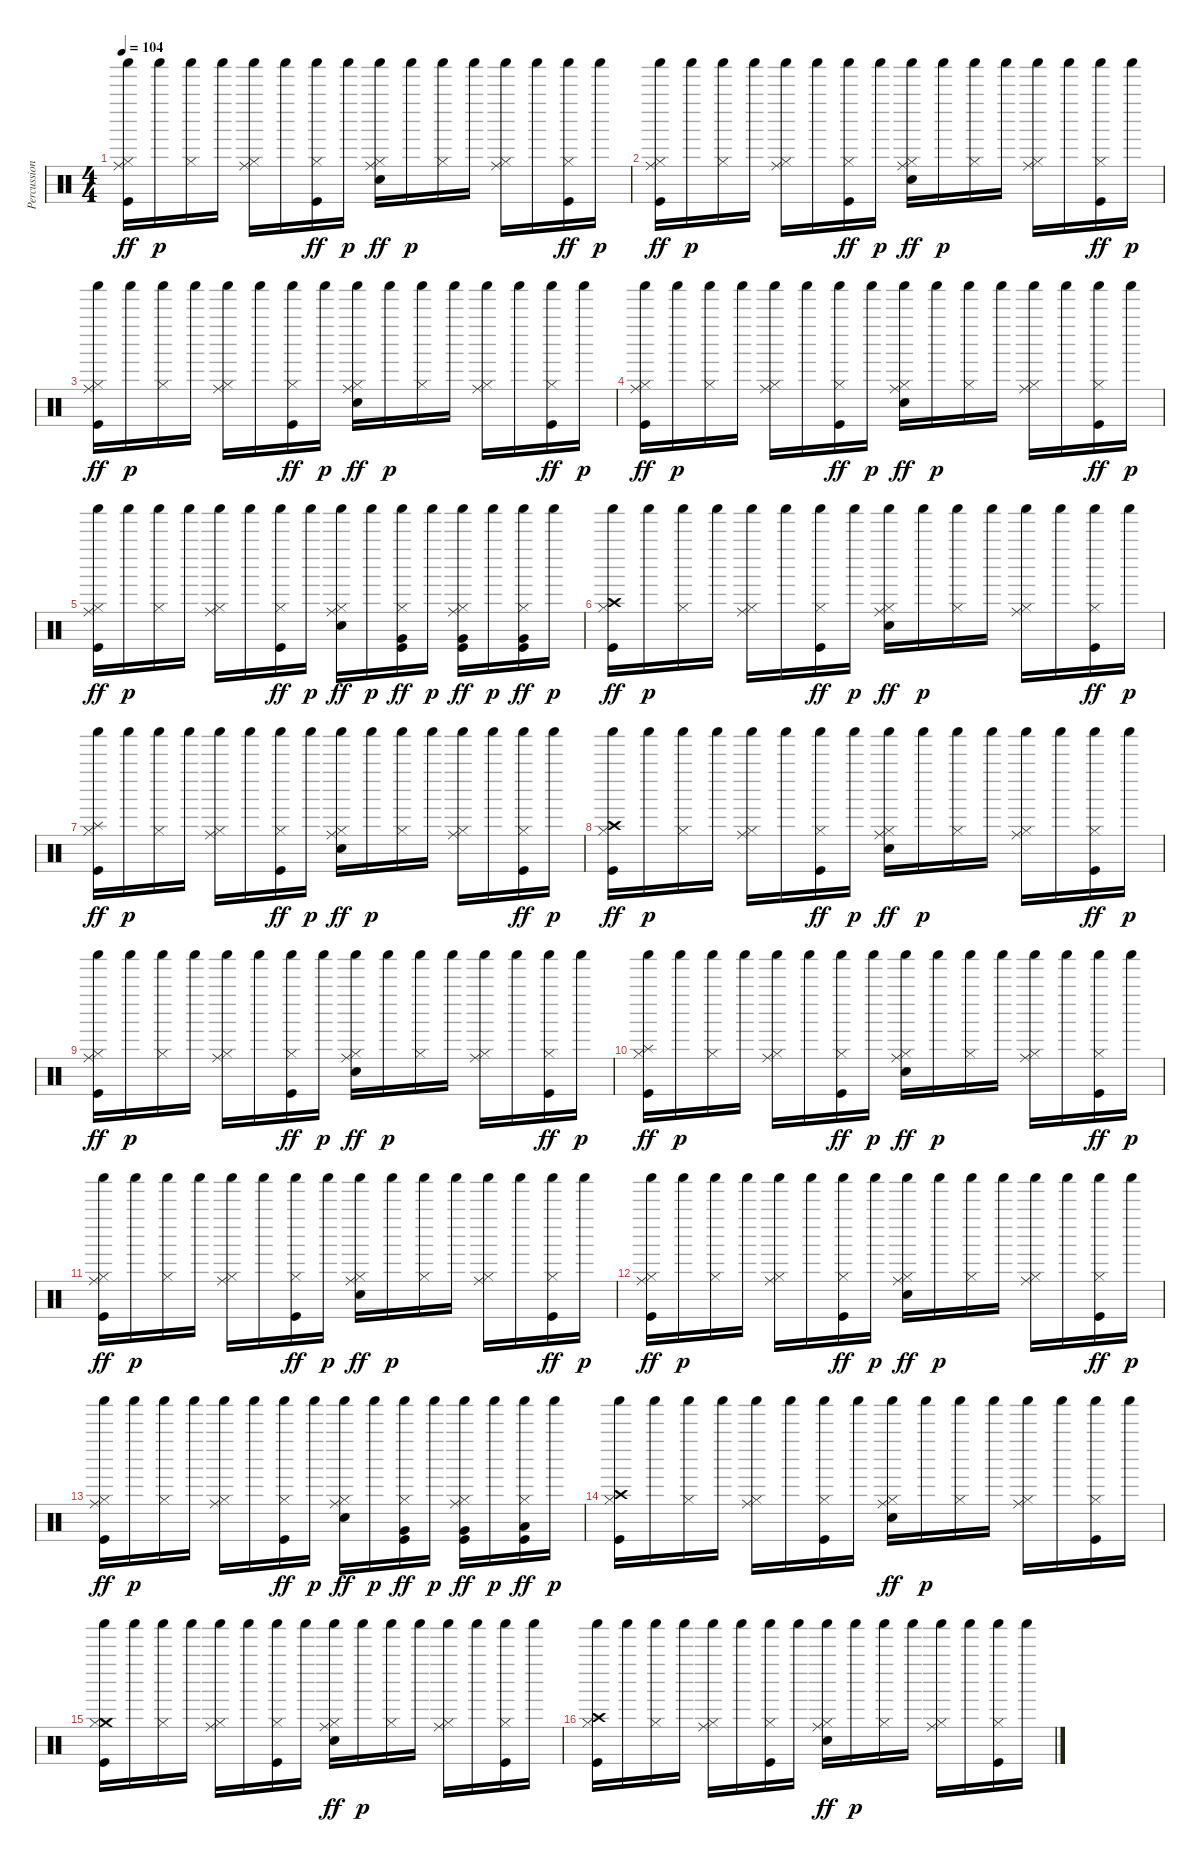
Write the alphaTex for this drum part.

\track ("Percussioni" "Percussion") {instrument percussion}
\staff {score}
\articulation defaults
\ts (4 4)
\tempo 104
\clef neutral
\ks c
("Ride (middle)" "Shaker (hit)" "Hi-Hat (closed)" "Kick (hit)").16{dy ff} "Shaker (hit)".16{dy p} ("Shaker (hit)" "Hi-Hat (closed)").16 "Shaker (hit)".16 ("Ride (middle)" "Shaker (hit)" "Hi-Hat (closed)").16 "Shaker (hit)".16 ("Shaker (hit)" "Hi-Hat (closed)" "Kick (hit)").16{dy ff} "Shaker (hit)".16{dy p} ("Ride (middle)" "Shaker (hit)" "Hi-Hat (closed)" "Snare (hit) 2").16{dy ff} "Shaker (hit)".16{dy p} ("Shaker (hit)" "Hi-Hat (closed)").16 "Shaker (hit)".16 ("Ride (middle)" "Shaker (hit)" "Hi-Hat (closed)").16 "Shaker (hit)".16 ("Shaker (hit)" "Hi-Hat (closed)" "Kick (hit)").16{dy ff} "Shaker (hit)".16{dy p} |
("Ride (middle)" "Shaker (hit)" "Hi-Hat (closed)" "Kick (hit)").16{dy ff} "Shaker (hit)".16{dy p} ("Shaker (hit)" "Hi-Hat (closed)").16 "Shaker (hit)".16 ("Ride (middle)" "Shaker (hit)" "Hi-Hat (closed)").16 "Shaker (hit)".16 ("Shaker (hit)" "Hi-Hat (closed)" "Kick (hit)").16{dy ff} "Shaker (hit)".16{dy p} ("Ride (middle)" "Shaker (hit)" "Hi-Hat (closed)" "Snare (hit) 2").16{dy ff} "Shaker (hit)".16{dy p} ("Shaker (hit)" "Hi-Hat (closed)").16 "Shaker (hit)".16 ("Ride (middle)" "Shaker (hit)" "Hi-Hat (closed)").16 "Shaker (hit)".16 ("Shaker (hit)" "Hi-Hat (closed)" "Kick (hit)").16{dy ff} "Shaker (hit)".16{dy p} |
("Ride (middle)" "Shaker (hit)" "Hi-Hat (closed)" "Kick (hit)").16{dy ff} "Shaker (hit)".16{dy p} ("Shaker (hit)" "Hi-Hat (closed)").16 "Shaker (hit)".16 ("Ride (middle)" "Shaker (hit)" "Hi-Hat (closed)").16 "Shaker (hit)".16 ("Shaker (hit)" "Hi-Hat (closed)" "Kick (hit)").16{dy ff} "Shaker (hit)".16{dy p} ("Ride (middle)" "Shaker (hit)" "Hi-Hat (closed)" "Snare (hit) 2").16{dy ff} "Shaker (hit)".16{dy p} ("Shaker (hit)" "Hi-Hat (closed)").16 "Shaker (hit)".16 ("Ride (middle)" "Shaker (hit)" "Hi-Hat (closed)").16 "Shaker (hit)".16 ("Shaker (hit)" "Hi-Hat (closed)" "Kick (hit)").16{dy ff} "Shaker (hit)".16{dy p} |
("Ride (middle)" "Shaker (hit)" "Hi-Hat (closed)" "Kick (hit)").16{dy ff} "Shaker (hit)".16{dy p} ("Shaker (hit)" "Hi-Hat (closed)").16 "Shaker (hit)".16 ("Ride (middle)" "Shaker (hit)" "Hi-Hat (closed)").16 "Shaker (hit)".16 ("Shaker (hit)" "Hi-Hat (closed)" "Kick (hit)").16{dy ff} "Shaker (hit)".16{dy p} ("Ride (middle)" "Shaker (hit)" "Hi-Hat (closed)" "Snare (hit) 2").16{dy ff} "Shaker (hit)".16{dy p} ("Shaker (hit)" "Hi-Hat (closed)").16 "Shaker (hit)".16 ("Ride (middle)" "Shaker (hit)" "Hi-Hat (closed)").16 "Shaker (hit)".16 ("Shaker (hit)" "Hi-Hat (closed)" "Kick (hit)").16{dy ff} "Shaker (hit)".16{dy p} |
("Ride (middle)" "Shaker (hit)" "Hi-Hat (closed)" "Kick (hit)").16{dy ff} "Shaker (hit)".16{dy p} ("Shaker (hit)" "Hi-Hat (closed)").16 "Shaker (hit)".16 ("Ride (middle)" "Shaker (hit)" "Hi-Hat (closed)").16 "Shaker (hit)".16 ("Shaker (hit)" "Hi-Hat (closed)" "Kick (hit)").16{dy ff} "Shaker (hit)".16{dy p} ("Ride (middle)" "Shaker (hit)" "Hi-Hat (closed)" "Snare (hit) 2").16{dy ff} "Shaker (hit)".16{dy p} ("Very Low Tom (hit)" "Shaker (hit)" "Hi-Hat (closed)" "Kick (hit)").16{dy ff} "Shaker (hit)".16{dy p} ("Ride (middle)" "Very Low Tom (hit)" "Shaker (hit)" "Hi-Hat (closed)" "Kick (hit)").16{dy ff} "Shaker (hit)".16{dy p} ("Very Low Tom (hit)" "Shaker (hit)" "Hi-Hat (closed)" "Kick (hit)").16{dy ff} "Shaker (hit)".16{dy p} |
("Crash high (hit)" "Shaker (hit)" "Hi-Hat (closed)" "Kick (hit)").16{dy ff} "Shaker (hit)".16{dy p} ("Shaker (hit)" "Hi-Hat (closed)").16 "Shaker (hit)".16 ("Ride (middle)" "Shaker (hit)" "Hi-Hat (closed)").16 "Shaker (hit)".16 ("Shaker (hit)" "Hi-Hat (closed)" "Kick (hit)").16{dy ff} "Shaker (hit)".16{dy p} ("Ride (middle)" "Shaker (hit)" "Hi-Hat (closed)" "Snare (hit) 2").16{dy ff} "Shaker (hit)".16{dy p} ("Shaker (hit)" "Hi-Hat (closed)").16 "Shaker (hit)".16 ("Ride (middle)" "Shaker (hit)" "Hi-Hat (closed)").16 "Shaker (hit)".16 ("Shaker (hit)" "Hi-Hat (closed)" "Kick (hit)").16{dy ff} "Shaker (hit)".16{dy p} |
("Splash (hit)" "Shaker (hit)" "Hi-Hat (closed)" "Kick (hit)").16{dy ff} "Shaker (hit)".16{dy p} ("Shaker (hit)" "Hi-Hat (closed)").16 "Shaker (hit)".16 ("Ride (middle)" "Shaker (hit)" "Hi-Hat (closed)").16 "Shaker (hit)".16 ("Shaker (hit)" "Hi-Hat (closed)" "Kick (hit)").16{dy ff} "Shaker (hit)".16{dy p} ("Ride (middle)" "Shaker (hit)" "Hi-Hat (closed)" "Snare (hit) 2").16{dy ff} "Shaker (hit)".16{dy p} ("Shaker (hit)" "Hi-Hat (closed)").16 "Shaker (hit)".16 ("Ride (middle)" "Shaker (hit)" "Hi-Hat (closed)").16 "Shaker (hit)".16 ("Shaker (hit)" "Hi-Hat (closed)" "Kick (hit)").16{dy ff} "Shaker (hit)".16{dy p} |
("Crash high (hit)" "Shaker (hit)" "Hi-Hat (closed)" "Kick (hit)").16{dy ff} "Shaker (hit)".16{dy p} ("Shaker (hit)" "Hi-Hat (closed)").16 "Shaker (hit)".16 ("Ride (middle)" "Shaker (hit)" "Hi-Hat (closed)").16 "Shaker (hit)".16 ("Shaker (hit)" "Hi-Hat (closed)" "Kick (hit)").16{dy ff} "Shaker (hit)".16{dy p} ("Ride (middle)" "Shaker (hit)" "Hi-Hat (closed)" "Snare (hit) 2").16{dy ff} "Shaker (hit)".16{dy p} ("Shaker (hit)" "Hi-Hat (closed)").16 "Shaker (hit)".16 ("Ride (middle)" "Shaker (hit)" "Hi-Hat (closed)").16 "Shaker (hit)".16 ("Shaker (hit)" "Hi-Hat (closed)" "Kick (hit)").16{dy ff} "Shaker (hit)".16{dy p} |
("Ride (middle)" "Shaker (hit)" "Hi-Hat (closed)" "Kick (hit)").16{dy ff} "Shaker (hit)".16{dy p} ("Shaker (hit)" "Hi-Hat (closed)").16 "Shaker (hit)".16 ("Ride (middle)" "Shaker (hit)" "Hi-Hat (closed)").16 "Shaker (hit)".16 ("Shaker (hit)" "Hi-Hat (closed)" "Kick (hit)").16{dy ff} "Shaker (hit)".16{dy p} ("Ride (middle)" "Shaker (hit)" "Hi-Hat (closed)" "Snare (hit) 2").16{dy ff} "Shaker (hit)".16{dy p} ("Shaker (hit)" "Hi-Hat (closed)").16 "Shaker (hit)".16 ("Ride (middle)" "Shaker (hit)" "Hi-Hat (closed)").16 "Shaker (hit)".16 ("Shaker (hit)" "Hi-Hat (closed)" "Kick (hit)").16{dy ff} "Shaker (hit)".16{dy p} |
("Splash (hit)" "Shaker (hit)" "Hi-Hat (closed)" "Kick (hit)").16{dy ff} "Shaker (hit)".16{dy p} ("Shaker (hit)" "Hi-Hat (closed)").16 "Shaker (hit)".16 ("Ride (middle)" "Shaker (hit)" "Hi-Hat (closed)").16 "Shaker (hit)".16 ("Shaker (hit)" "Hi-Hat (closed)" "Kick (hit)").16{dy ff} "Shaker (hit)".16{dy p} ("Ride (middle)" "Shaker (hit)" "Hi-Hat (closed)" "Snare (hit) 2").16{dy ff} "Shaker (hit)".16{dy p} ("Shaker (hit)" "Hi-Hat (closed)").16 "Shaker (hit)".16 ("Ride (middle)" "Shaker (hit)" "Hi-Hat (closed)").16 "Shaker (hit)".16 ("Shaker (hit)" "Hi-Hat (closed)" "Kick (hit)").16{dy ff} "Shaker (hit)".16{dy p} |
("Ride (middle)" "Shaker (hit)" "Hi-Hat (closed)" "Kick (hit)").16{dy ff} "Shaker (hit)".16{dy p} ("Shaker (hit)" "Hi-Hat (closed)").16 "Shaker (hit)".16 ("Ride (middle)" "Shaker (hit)" "Hi-Hat (closed)").16 "Shaker (hit)".16 ("Shaker (hit)" "Hi-Hat (closed)" "Kick (hit)").16{dy ff} "Shaker (hit)".16{dy p} ("Ride (middle)" "Shaker (hit)" "Hi-Hat (closed)" "Snare (hit) 2").16{dy ff} "Shaker (hit)".16{dy p} ("Shaker (hit)" "Hi-Hat (closed)").16 "Shaker (hit)".16 ("Ride (middle)" "Shaker (hit)" "Hi-Hat (closed)").16 "Shaker (hit)".16 ("Shaker (hit)" "Hi-Hat (closed)" "Kick (hit)").16{dy ff} "Shaker (hit)".16{dy p} |
("Ride (middle)" "Shaker (hit)" "Hi-Hat (closed)" "Kick (hit)").16{dy ff} "Shaker (hit)".16{dy p} ("Shaker (hit)" "Hi-Hat (closed)").16 "Shaker (hit)".16 ("Ride (middle)" "Shaker (hit)" "Hi-Hat (closed)").16 "Shaker (hit)".16 ("Shaker (hit)" "Hi-Hat (closed)" "Kick (hit)").16{dy ff} "Shaker (hit)".16{dy p} ("Ride (middle)" "Shaker (hit)" "Hi-Hat (closed)" "Snare (hit) 2").16{dy ff} "Shaker (hit)".16{dy p} ("Shaker (hit)" "Hi-Hat (closed)").16 "Shaker (hit)".16 ("Ride (middle)" "Shaker (hit)" "Hi-Hat (closed)").16 "Shaker (hit)".16 ("Shaker (hit)" "Hi-Hat (closed)" "Kick (hit)").16{dy ff} "Shaker (hit)".16{dy p} |
("Ride (middle)" "Shaker (hit)" "Hi-Hat (closed)" "Kick (hit)").16{dy ff} "Shaker (hit)".16{dy p} ("Shaker (hit)" "Hi-Hat (closed)").16 "Shaker (hit)".16 ("Ride (middle)" "Shaker (hit)" "Hi-Hat (closed)").16 "Shaker (hit)".16 ("Shaker (hit)" "Hi-Hat (closed)" "Kick (hit)").16{dy ff} "Shaker (hit)".16{dy p} ("Ride (middle)" "Shaker (hit)" "Hi-Hat (closed)" "Snare (hit) 2").16{dy ff} "Shaker (hit)".16{dy p} ("Very Low Tom (hit)" "Shaker (hit)" "Hi-Hat (closed)" "Kick (hit)").16{dy ff} "Shaker (hit)".16{dy p} ("Ride (middle)" "Very Low Tom (hit)" "Shaker (hit)" "Hi-Hat (closed)" "Kick (hit)").16{dy ff} "Shaker (hit)".16{dy p} ("Low Floor Tom (hit)" "Shaker (hit)" "Hi-Hat (closed)" "Kick (hit)").16{dy ff} "Shaker (hit)".16{dy p} |
("Crash high (hit)" "Shaker (hit)" "Hi-Hat (closed)" "Kick (hit)").16 "Shaker (hit)".16 ("Shaker (hit)" "Hi-Hat (closed)").16 "Shaker (hit)".16 ("Ride (middle)" "Shaker (hit)" "Hi-Hat (closed)").16 "Shaker (hit)".16 ("Shaker (hit)" "Hi-Hat (closed)" "Kick (hit)").16 "Shaker (hit)".16 ("Ride (middle)" "Shaker (hit)" "Hi-Hat (closed)" "Snare (hit) 2").16{dy ff} "Shaker (hit)".16{dy p} ("Shaker (hit)" "Hi-Hat (closed)").16 "Shaker (hit)".16 ("Ride (middle)" "Shaker (hit)" "Hi-Hat (closed)").16 "Shaker (hit)".16 ("Shaker (hit)" "Hi-Hat (closed)" "Kick (hit)").16 "Shaker (hit)".16 |
("Crash medium (hit)" "Shaker (hit)" "Hi-Hat (closed)" "Kick (hit)").16 "Shaker (hit)".16 ("Shaker (hit)" "Hi-Hat (closed)").16 "Shaker (hit)".16 ("Ride (middle)" "Shaker (hit)" "Hi-Hat (closed)").16 "Shaker (hit)".16 ("Shaker (hit)" "Hi-Hat (closed)" "Kick (hit)").16 "Shaker (hit)".16 ("Ride (middle)" "Shaker (hit)" "Hi-Hat (closed)" "Snare (hit) 2").16{dy ff} "Shaker (hit)".16{dy p} ("Shaker (hit)" "Hi-Hat (closed)").16 "Shaker (hit)".16 ("Ride (middle)" "Shaker (hit)" "Hi-Hat (closed)").16 "Shaker (hit)".16 ("Shaker (hit)" "Hi-Hat (closed)" "Kick (hit)").16 "Shaker (hit)".16 |
("Crash high (hit)" "Shaker (hit)" "Hi-Hat (closed)" "Kick (hit)").16 "Shaker (hit)".16 ("Shaker (hit)" "Hi-Hat (closed)").16 "Shaker (hit)".16 ("Ride (middle)" "Shaker (hit)" "Hi-Hat (closed)").16 "Shaker (hit)".16 ("Shaker (hit)" "Hi-Hat (closed)" "Kick (hit)").16 "Shaker (hit)".16 ("Ride (middle)" "Shaker (hit)" "Hi-Hat (closed)" "Snare (hit) 2").16{dy ff} "Shaker (hit)".16{dy p} ("Shaker (hit)" "Hi-Hat (closed)").16 "Shaker (hit)".16 ("Ride (middle)" "Shaker (hit)" "Hi-Hat (closed)").16 "Shaker (hit)".16 ("Shaker (hit)" "Hi-Hat (closed)" "Kick (hit)").16 "Shaker (hit)".16
